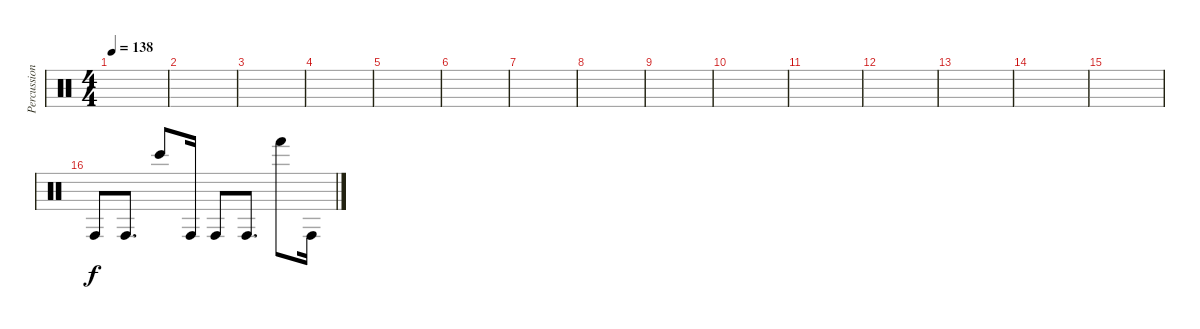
\track ("Percussion" "Percussion") {instrument percussion}
\staff {score}
\articulation defaults
\ts (4 4)
\tempo 138
\clef neutral
\ks c
|
|
|
|
|
|
|
|
|
|
|
|
|
|
|
"Conga high (hit)".8{dy f} "Conga high (hit)".8{d} "Bongo High (hit)".8 "Conga high (hit)".16 "Conga high (hit)".8 "Conga high (hit)".8{d} "Hand (hit)".8 "Conga high (hit)".16
